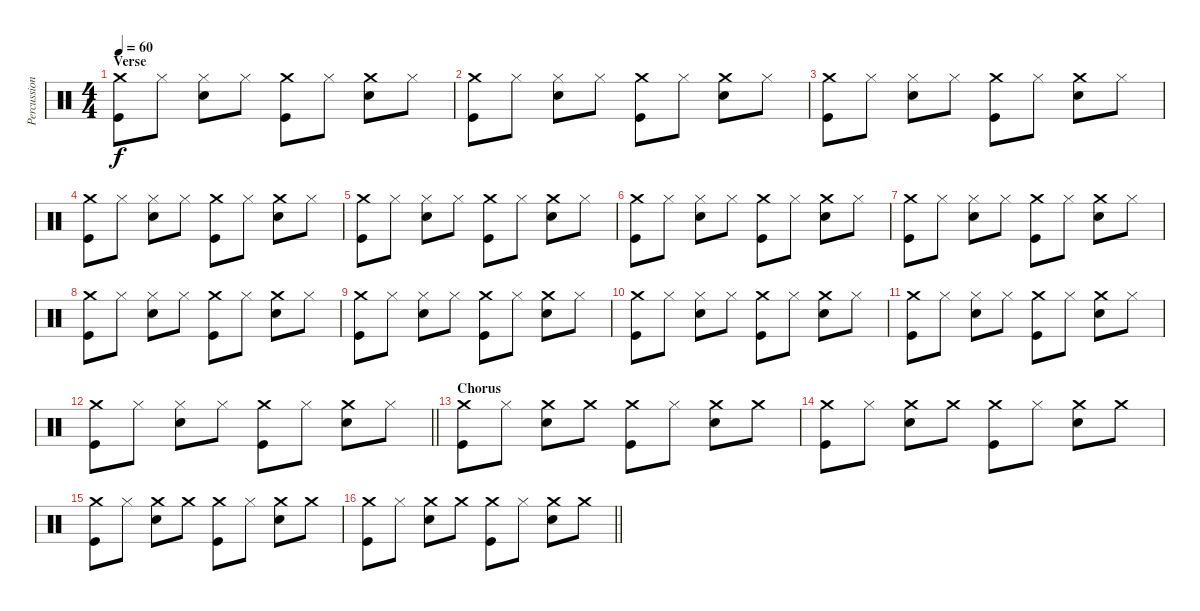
\track ("Percussion" "Percussion") {instrument percussion}
\staff {score}
\articulation defaults
\ts (4 4)
\section ("" "Verse")
\tempo 60
\clef neutral
\ks c
("Crash medium (hit)" "Kick (hit)").8{dy f} "Hi-Hat (closed)".8 ("Hi-Hat (closed)" "Snare (hit) 2").8 "Hi-Hat (closed)".8 ("Crash medium (hit)" "Kick (hit)").8 "Hi-Hat (closed)".8 ("Crash medium (hit)" "Snare (hit) 2").8 "Hi-Hat (closed)".8 |
("Crash medium (hit)" "Kick (hit)").8 "Hi-Hat (closed)".8 ("Hi-Hat (closed)" "Snare (hit) 2").8 "Hi-Hat (closed)".8 ("Crash medium (hit)" "Kick (hit)").8 "Hi-Hat (closed)".8 ("Crash medium (hit)" "Snare (hit) 2").8 "Hi-Hat (closed)".8 |
("Crash medium (hit)" "Kick (hit)").8 "Hi-Hat (closed)".8 ("Hi-Hat (closed)" "Snare (hit) 2").8 "Hi-Hat (closed)".8 ("Crash medium (hit)" "Kick (hit)").8 "Hi-Hat (closed)".8 ("Crash medium (hit)" "Snare (hit) 2").8 "Hi-Hat (closed)".8 |
("Crash medium (hit)" "Kick (hit)").8 "Hi-Hat (closed)".8 ("Hi-Hat (closed)" "Snare (hit) 2").8 "Hi-Hat (closed)".8 ("Crash medium (hit)" "Kick (hit)").8 "Hi-Hat (closed)".8 ("Crash medium (hit)" "Snare (hit) 2").8 "Hi-Hat (closed)".8 |
("Crash medium (hit)" "Kick (hit)").8 "Hi-Hat (closed)".8 ("Hi-Hat (closed)" "Snare (hit) 2").8 "Hi-Hat (closed)".8 ("Crash medium (hit)" "Kick (hit)").8 "Hi-Hat (closed)".8 ("Crash medium (hit)" "Snare (hit) 2").8 "Hi-Hat (closed)".8 |
("Crash medium (hit)" "Kick (hit)").8 "Hi-Hat (closed)".8 ("Hi-Hat (closed)" "Snare (hit) 2").8 "Hi-Hat (closed)".8 ("Crash medium (hit)" "Kick (hit)").8 "Hi-Hat (closed)".8 ("Crash medium (hit)" "Snare (hit) 2").8 "Hi-Hat (closed)".8 |
("Crash medium (hit)" "Kick (hit)").8 "Hi-Hat (closed)".8 ("Hi-Hat (closed)" "Snare (hit) 2").8 "Hi-Hat (closed)".8 ("Crash medium (hit)" "Kick (hit)").8 "Hi-Hat (closed)".8 ("Crash medium (hit)" "Snare (hit) 2").8 "Hi-Hat (closed)".8 |
("Crash medium (hit)" "Kick (hit)").8 "Hi-Hat (closed)".8 ("Hi-Hat (closed)" "Snare (hit) 2").8 "Hi-Hat (closed)".8 ("Crash medium (hit)" "Kick (hit)").8 "Hi-Hat (closed)".8 ("Crash medium (hit)" "Snare (hit) 2").8 "Hi-Hat (closed)".8 |
("Crash medium (hit)" "Kick (hit)").8 "Hi-Hat (closed)".8 ("Hi-Hat (closed)" "Snare (hit) 2").8 "Hi-Hat (closed)".8 ("Crash medium (hit)" "Kick (hit)").8 "Hi-Hat (closed)".8 ("Crash medium (hit)" "Snare (hit) 2").8 "Hi-Hat (closed)".8 |
("Crash medium (hit)" "Kick (hit)").8 "Hi-Hat (closed)".8 ("Hi-Hat (closed)" "Snare (hit) 2").8 "Hi-Hat (closed)".8 ("Crash medium (hit)" "Kick (hit)").8 "Hi-Hat (closed)".8 ("Crash medium (hit)" "Snare (hit) 2").8 "Hi-Hat (closed)".8 |
("Crash medium (hit)" "Kick (hit)").8 "Hi-Hat (closed)".8 ("Hi-Hat (closed)" "Snare (hit) 2").8 "Hi-Hat (closed)".8 ("Crash medium (hit)" "Kick (hit)").8 "Hi-Hat (closed)".8 ("Crash medium (hit)" "Snare (hit) 2").8 "Hi-Hat (closed)".8 |
\barLineRight lightlight
("Crash medium (hit)" "Kick (hit)").8 "Hi-Hat (closed)".8 ("Hi-Hat (closed)" "Snare (hit) 2").8 "Hi-Hat (closed)".8 ("Crash medium (hit)" "Kick (hit)").8 "Hi-Hat (closed)".8 ("Crash medium (hit)" "Snare (hit) 2").8 "Hi-Hat (closed)".8 |
\section ("" "Chorus")
("Crash medium (hit)" "Kick (hit)").8 "Hi-Hat (closed)".8 ("Crash medium (hit)" "Snare (hit) 2").8 "Crash medium (hit)".8 ("Crash medium (hit)" "Kick (hit)").8 "Hi-Hat (closed)".8 ("Crash medium (hit)" "Snare (hit) 2").8 "Crash medium (hit)".8 |
("Crash medium (hit)" "Kick (hit)").8 "Hi-Hat (closed)".8 ("Crash medium (hit)" "Snare (hit) 2").8 "Crash medium (hit)".8 ("Crash medium (hit)" "Kick (hit)").8 "Hi-Hat (closed)".8 ("Crash medium (hit)" "Snare (hit) 2").8 "Crash medium (hit)".8 |
("Crash medium (hit)" "Kick (hit)").8 "Hi-Hat (closed)".8 ("Crash medium (hit)" "Snare (hit) 2").8 "Crash medium (hit)".8 ("Crash medium (hit)" "Kick (hit)").8 "Hi-Hat (closed)".8 ("Crash medium (hit)" "Snare (hit) 2").8 "Crash medium (hit)".8 |
\barLineRight lightlight
("Crash medium (hit)" "Kick (hit)").8 "Hi-Hat (closed)".8 ("Crash medium (hit)" "Snare (hit) 2").8 "Crash medium (hit)".8 ("Crash medium (hit)" "Kick (hit)").8 "Hi-Hat (closed)".8 ("Crash medium (hit)" "Snare (hit) 2").8 "Crash medium (hit)".8
